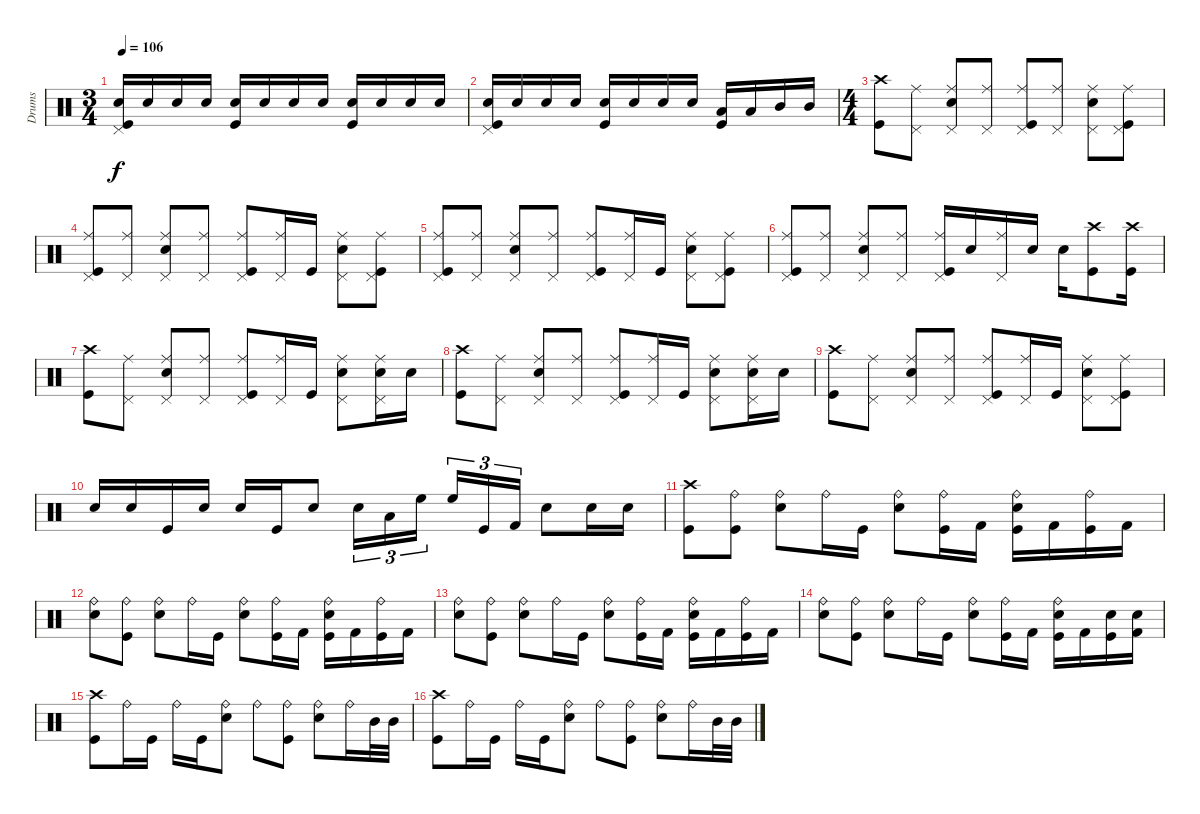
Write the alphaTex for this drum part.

\track ("Drums" "Drums") {instrument percussion}
\staff {score}
\articulation defaults
\ts (3 4)
\tempo 106
\clef neutral
\ks c
("Snare (hit) 2" "Kick (hit)" "Pedal Hi-Hat (hit)").16{dy f} "Snare (hit) 2".16 "Snare (hit) 2".16 "Snare (hit) 2".16 ("Snare (hit) 2" "Kick (hit)").16 "Snare (hit) 2".16 "Snare (hit) 2".16 "Snare (hit) 2".16 ("Snare (hit) 2" "Kick (hit)").16 "Snare (hit) 2".16 "Snare (hit) 2".16 "Snare (hit) 2".16 |
("Snare (hit) 2" "Kick (hit)" "Pedal Hi-Hat (hit)").16 "Snare (hit) 2".16 "Snare (hit) 2".16 "Snare (hit) 2".16 ("Snare (hit) 2" "Kick (hit)").16 "Snare (hit) 2".16 "Snare (hit) 2".16 "Snare (hit) 2".16 ("Low Tom (hit)" "Kick (hit)").16 "Low Tom (hit)".16 "Mid Tom (hit)".16 "Mid Tom (hit)".16 |
\ts (4 4)
("Crash high (hit)" "Kick (hit)").8 ("Pedal Hi-Hat (hit)" "Ride (middle)").8 ("Pedal Hi-Hat (hit)" "Ride (middle)" "Snare (hit) 2").8 ("Pedal Hi-Hat (hit)" "Ride (middle)").8 ("Pedal Hi-Hat (hit)" "Ride (middle)" "Kick (hit)").8 ("Pedal Hi-Hat (hit)" "Ride (middle)").8 ("Pedal Hi-Hat (hit)" "Ride (middle)" "Snare (hit) 2").8 ("Pedal Hi-Hat (hit)" "Ride (middle)" "Kick (hit)").8 |
("Pedal Hi-Hat (hit)" "Ride (middle)" "Kick (hit)").8 ("Pedal Hi-Hat (hit)" "Ride (middle)").8 ("Pedal Hi-Hat (hit)" "Ride (middle)" "Snare (hit) 2").8 ("Pedal Hi-Hat (hit)" "Ride (middle)").8 ("Pedal Hi-Hat (hit)" "Ride (middle)" "Kick (hit)").8 ("Pedal Hi-Hat (hit)" "Ride (middle)").16 "Kick (hit)".16 ("Pedal Hi-Hat (hit)" "Ride (middle)" "Snare (hit) 2").8 ("Pedal Hi-Hat (hit)" "Ride (middle)" "Kick (hit)").8 |
("Pedal Hi-Hat (hit)" "Ride (middle)" "Kick (hit)").8 ("Pedal Hi-Hat (hit)" "Ride (middle)").8 ("Pedal Hi-Hat (hit)" "Ride (middle)" "Snare (hit) 2").8 ("Pedal Hi-Hat (hit)" "Ride (middle)").8 ("Pedal Hi-Hat (hit)" "Ride (middle)" "Kick (hit)").8 ("Pedal Hi-Hat (hit)" "Ride (middle)").16 "Kick (hit)".16 ("Pedal Hi-Hat (hit)" "Ride (middle)" "Snare (hit) 2").8 ("Pedal Hi-Hat (hit)" "Ride (middle)" "Kick (hit)").8 |
("Pedal Hi-Hat (hit)" "Ride (middle)" "Kick (hit)").8 ("Pedal Hi-Hat (hit)" "Ride (middle)").8 ("Pedal Hi-Hat (hit)" "Ride (middle)" "Snare (hit) 2").8 ("Pedal Hi-Hat (hit)" "Ride (middle)").8 ("Pedal Hi-Hat (hit)" "Ride (middle)" "Kick (hit)").16 "Snare (hit) 2".16 ("Pedal Hi-Hat (hit)" "Ride (middle)").16 "Snare (hit) 2".16 "Snare (hit) 2".16 ("Crash high (hit)" "Kick (hit)").8 ("Crash high (hit)" "Kick (hit)").16 |
("Crash high (hit)" "Kick (hit)").8 ("Pedal Hi-Hat (hit)" "Ride (middle)").8 ("Pedal Hi-Hat (hit)" "Ride (middle)" "Snare (hit) 2").8 ("Pedal Hi-Hat (hit)" "Ride (middle)").8 ("Pedal Hi-Hat (hit)" "Ride (middle)" "Kick (hit)").8 ("Pedal Hi-Hat (hit)" "Ride (middle)").16 "Kick (hit)".16 ("Pedal Hi-Hat (hit)" "Ride (middle)" "Snare (hit) 2").8 ("Pedal Hi-Hat (hit)" "Ride (middle)" "Snare (hit) 2").16 "Snare (hit) 2".16 |
("Crash high (hit)" "Kick (hit)").8 ("Pedal Hi-Hat (hit)" "Ride (middle)").8 ("Pedal Hi-Hat (hit)" "Ride (middle)" "Snare (hit) 2").8 ("Pedal Hi-Hat (hit)" "Ride (middle)").8 ("Pedal Hi-Hat (hit)" "Ride (middle)" "Kick (hit)").8 ("Pedal Hi-Hat (hit)" "Ride (middle)").16 "Kick (hit)".16 ("Pedal Hi-Hat (hit)" "Ride (middle)" "Snare (hit) 2").8 ("Pedal Hi-Hat (hit)" "Ride (middle)" "Snare (hit) 2").16 "Snare (hit) 2".16 |
("Crash high (hit)" "Kick (hit)").8 ("Pedal Hi-Hat (hit)" "Ride (middle)").8 ("Pedal Hi-Hat (hit)" "Ride (middle)" "Snare (hit) 2").8 ("Pedal Hi-Hat (hit)" "Ride (middle)").8 ("Pedal Hi-Hat (hit)" "Ride (middle)" "Kick (hit)").8 ("Pedal Hi-Hat (hit)" "Ride (middle)").16 "Kick (hit)".16 ("Pedal Hi-Hat (hit)" "Ride (middle)" "Snare (hit) 2").8 ("Pedal Hi-Hat (hit)" "Ride (middle)" "Kick (hit)").8 |
"Electric Snare (hit)".16 "Snare (hit) 2".16 "Kick (hit)".16 "Electric Snare (hit)".16 "Snare (hit) 2".16 "Kick (hit)".16 "Electric Snare (hit)".8 "Snare (hit) 2".16{tu (3 2)} "Low Tom (hit)".16{tu (3 2)} "High Floor Tom (hit)".16{tu (3 2)} "High Floor Tom (hit)".16{tu (3 2)} "Kick (hit)".16{tu (3 2)} "Kick (hit) 2".16{tu (3 2)} "Electric Snare (hit)".8 "Snare (hit) 2".16 "Snare (hit) 2".16 |
("Crash high (hit)" "Kick (hit)").8 ("Ride (bell)" "Kick (hit)").8 ("Ride (bell)" "Snare (hit) 2").8 "Ride (bell)".16 "Kick (hit)".16 ("Ride (bell)" "Snare (hit) 2").8 ("Ride (bell)" "Kick (hit)").16 "Kick (hit) 2".16 ("Ride (bell)" "Snare (hit) 2" "Kick (hit)").16 "Kick (hit) 2".16 ("Ride (bell)" "Kick (hit)").16 "Kick (hit) 2".16 |
("Snare (hit) 2" "Ride (bell)").8 ("Ride (bell)" "Kick (hit)").8 ("Ride (bell)" "Snare (hit) 2").8 "Ride (bell)".16 "Kick (hit)".16 ("Ride (bell)" "Snare (hit) 2").8 ("Ride (bell)" "Kick (hit)").16 "Kick (hit) 2".16 ("Ride (bell)" "Snare (hit) 2" "Kick (hit)").16 "Kick (hit) 2".16 ("Ride (bell)" "Kick (hit)").16 "Kick (hit) 2".16 |
("Snare (hit) 2" "Ride (bell)").8 ("Ride (bell)" "Kick (hit)").8 ("Ride (bell)" "Snare (hit) 2").8 "Ride (bell)".16 "Kick (hit)".16 ("Ride (bell)" "Snare (hit) 2").8 ("Ride (bell)" "Kick (hit)").16 "Kick (hit) 2".16 ("Ride (bell)" "Snare (hit) 2" "Kick (hit)").16 "Kick (hit) 2".16 ("Ride (bell)" "Kick (hit)").16 "Kick (hit) 2".16 |
("Snare (hit) 2" "Ride (bell)").8 ("Ride (bell)" "Kick (hit)").8 ("Ride (bell)" "Snare (hit) 2").8 "Ride (bell)".16 "Kick (hit)".16 ("Ride (bell)" "Snare (hit) 2").8 ("Ride (bell)" "Kick (hit)").16 "Kick (hit) 2".16 ("Ride (bell)" "Snare (hit) 2" "Kick (hit)").16 "Kick (hit) 2".16 ("Snare (hit) 2" "Kick (hit)").16 ("Snare (hit) 2" "Kick (hit) 2").16 |
("Crash high (hit)" "Kick (hit)").8 "Ride (bell)".16 "Kick (hit)".16 "Ride (bell)".16 "Kick (hit)".16 ("Ride (bell)" "Snare (hit) 2").8 "Ride (bell)".8 ("Ride (bell)" "Kick (hit)").8 ("Ride (bell)" "Snare (hit) 2").8 "Ride (bell)".16 "Mid Tom (hit)".32 "Mid Tom (hit)".32 |
("Crash high (hit)" "Kick (hit)").8 "Ride (bell)".16 "Kick (hit)".16 "Ride (bell)".16 "Kick (hit)".16 ("Ride (bell)" "Snare (hit) 2").8 "Ride (bell)".8 ("Ride (bell)" "Kick (hit)").8 ("Ride (bell)" "Snare (hit) 2").8 "Ride (bell)".16 "Mid Tom (hit)".32 "Mid Tom (hit)".32
